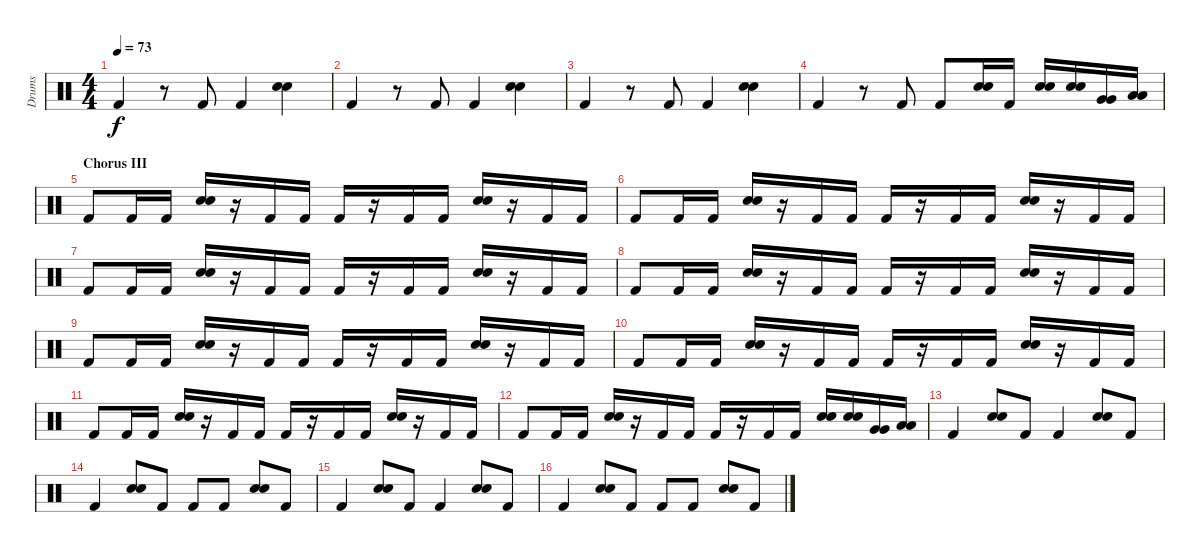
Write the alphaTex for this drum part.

\track ("Drums" "Drums") {instrument percussion}
\staff {score}
\articulation defaults
\ts (4 4)
\tempo 73
\clef neutral
\ks c "Kick (hit) 2".4{dy f}
r.8 "Kick (hit) 2".8 "Kick (hit) 2".4 ("Electric Snare (hit)" "Snare (hit) 2").4 |
"Kick (hit) 2".4 r.8 "Kick (hit) 2".8 "Kick (hit) 2".4 ("Electric Snare (hit)" "Snare (hit) 2").4 |
"Kick (hit) 2".4 r.8 "Kick (hit) 2".8 "Kick (hit) 2".4 ("Electric Snare (hit)" "Snare (hit) 2").4 |
"Kick (hit) 2".4 r.8 "Kick (hit) 2".8 "Kick (hit) 2".8 ("Electric Snare (hit)" "Snare (hit) 2").16 "Kick (hit) 2".16 ("Electric Snare (hit)" "Snare (hit) 2").16 ("Electric Snare (hit)" "Snare (hit) 2").16 ("Very Low Tom (hit)" "Very Low Tom (hit)").16 ("Low Floor Tom (hit)" "Low Floor Tom (hit)").16 |
\section ("" "Chorus III")
"Kick (hit) 2".8 "Kick (hit) 2".16 "Kick (hit) 2".16 ("Electric Snare (hit)" "Snare (hit) 2").16 r.16 "Kick (hit) 2".16 "Kick (hit) 2".16 "Kick (hit) 2".16 r.16 "Kick (hit) 2".16 "Kick (hit) 2".16 ("Electric Snare (hit)" "Snare (hit) 2").16 r.16 "Kick (hit) 2".16 "Kick (hit) 2".16 |
"Kick (hit) 2".8 "Kick (hit) 2".16 "Kick (hit) 2".16 ("Electric Snare (hit)" "Snare (hit) 2").16 r.16 "Kick (hit) 2".16 "Kick (hit) 2".16 "Kick (hit) 2".16 r.16 "Kick (hit) 2".16 "Kick (hit) 2".16 ("Electric Snare (hit)" "Snare (hit) 2").16 r.16 "Kick (hit) 2".16 "Kick (hit) 2".16 |
"Kick (hit) 2".8 "Kick (hit) 2".16 "Kick (hit) 2".16 ("Electric Snare (hit)" "Snare (hit) 2").16 r.16 "Kick (hit) 2".16 "Kick (hit) 2".16 "Kick (hit) 2".16 r.16 "Kick (hit) 2".16 "Kick (hit) 2".16 ("Electric Snare (hit)" "Snare (hit) 2").16 r.16 "Kick (hit) 2".16 "Kick (hit) 2".16 |
"Kick (hit) 2".8 "Kick (hit) 2".16 "Kick (hit) 2".16 ("Electric Snare (hit)" "Snare (hit) 2").16 r.16 "Kick (hit) 2".16 "Kick (hit) 2".16 "Kick (hit) 2".16 r.16 "Kick (hit) 2".16 "Kick (hit) 2".16 ("Electric Snare (hit)" "Snare (hit) 2").16 r.16 "Kick (hit) 2".16 "Kick (hit) 2".16 |
"Kick (hit) 2".8 "Kick (hit) 2".16 "Kick (hit) 2".16 ("Electric Snare (hit)" "Snare (hit) 2").16 r.16 "Kick (hit) 2".16 "Kick (hit) 2".16 "Kick (hit) 2".16 r.16 "Kick (hit) 2".16 "Kick (hit) 2".16 ("Electric Snare (hit)" "Snare (hit) 2").16 r.16 "Kick (hit) 2".16 "Kick (hit) 2".16 |
"Kick (hit) 2".8 "Kick (hit) 2".16 "Kick (hit) 2".16 ("Electric Snare (hit)" "Snare (hit) 2").16 r.16 "Kick (hit) 2".16 "Kick (hit) 2".16 "Kick (hit) 2".16 r.16 "Kick (hit) 2".16 "Kick (hit) 2".16 ("Electric Snare (hit)" "Snare (hit) 2").16 r.16 "Kick (hit) 2".16 "Kick (hit) 2".16 |
"Kick (hit) 2".8 "Kick (hit) 2".16 "Kick (hit) 2".16 ("Electric Snare (hit)" "Snare (hit) 2").16 r.16 "Kick (hit) 2".16 "Kick (hit) 2".16 "Kick (hit) 2".16 r.16 "Kick (hit) 2".16 "Kick (hit) 2".16 ("Electric Snare (hit)" "Snare (hit) 2").16 r.16 "Kick (hit) 2".16 "Kick (hit) 2".16 |
"Kick (hit) 2".8 "Kick (hit) 2".16 "Kick (hit) 2".16 ("Electric Snare (hit)" "Snare (hit) 2").16 r.16 "Kick (hit) 2".16 "Kick (hit) 2".16 "Kick (hit) 2".16 r.16 "Kick (hit) 2".16 "Kick (hit) 2".16 ("Electric Snare (hit)" "Snare (hit) 2").16 ("Electric Snare (hit)" "Snare (hit) 2").16 ("Very Low Tom (hit)" "Very Low Tom (hit)").16 ("Low Floor Tom (hit)" "Low Floor Tom (hit)").16 |
"Kick (hit) 2".4 ("Electric Snare (hit)" "Snare (hit) 2").8 "Kick (hit) 2".8 "Kick (hit) 2".4 ("Electric Snare (hit)" "Snare (hit) 2").8 "Kick (hit) 2".8 |
"Kick (hit) 2".4 ("Electric Snare (hit)" "Snare (hit) 2").8 "Kick (hit) 2".8 "Kick (hit) 2".8 "Kick (hit) 2".8 ("Electric Snare (hit)" "Snare (hit) 2").8 "Kick (hit) 2".8 |
"Kick (hit) 2".4 ("Electric Snare (hit)" "Snare (hit) 2").8 "Kick (hit) 2".8 "Kick (hit) 2".4 ("Electric Snare (hit)" "Snare (hit) 2").8 "Kick (hit) 2".8 |
"Kick (hit) 2".4 ("Electric Snare (hit)" "Snare (hit) 2").8 "Kick (hit) 2".8 "Kick (hit) 2".8 "Kick (hit) 2".8 ("Electric Snare (hit)" "Snare (hit) 2").8 "Kick (hit) 2".8
